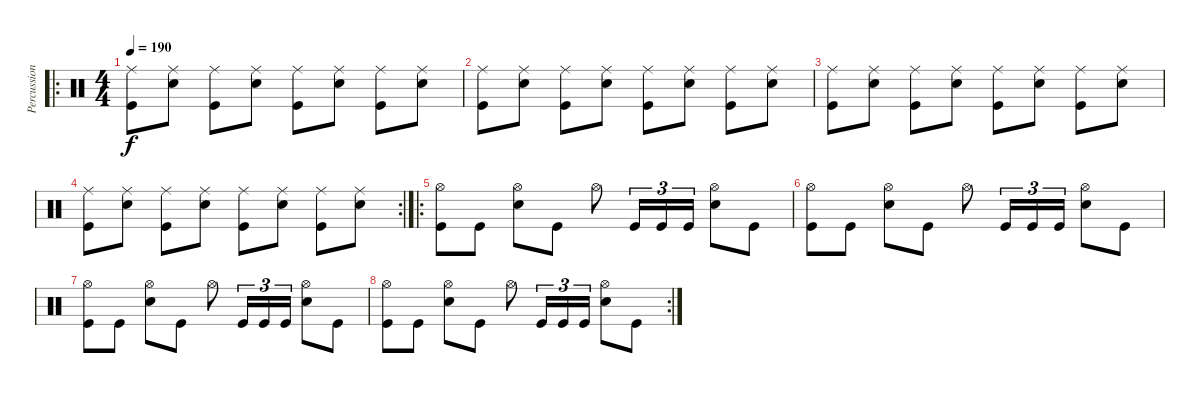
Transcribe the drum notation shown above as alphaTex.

\track ("Percussion" "Percussion") {instrument percussion}
\staff {score}
\articulation defaults
\ro
\ts (4 4)
\tempo 190
\clef neutral
\ks c
("Ride (middle)" "Kick (hit)").8{dy f} ("Ride (middle)" "Snare (hit) 2").8 ("Ride (middle)" "Kick (hit)").8 ("Ride (middle)" "Snare (hit) 2").8 ("Ride (middle)" "Kick (hit)").8 ("Ride (middle)" "Snare (hit) 2").8 ("Ride (middle)" "Kick (hit)").8 ("Ride (middle)" "Snare (hit) 2").8 |
("Ride (middle)" "Kick (hit)").8 ("Ride (middle)" "Snare (hit) 2").8 ("Ride (middle)" "Kick (hit)").8 ("Ride (middle)" "Snare (hit) 2").8 ("Ride (middle)" "Kick (hit)").8 ("Ride (middle)" "Snare (hit) 2").8 ("Ride (middle)" "Kick (hit)").8 ("Ride (middle)" "Snare (hit) 2").8 |
("Ride (middle)" "Kick (hit)").8 ("Ride (middle)" "Snare (hit) 2").8 ("Ride (middle)" "Kick (hit)").8 ("Ride (middle)" "Snare (hit) 2").8 ("Ride (middle)" "Kick (hit)").8 ("Ride (middle)" "Snare (hit) 2").8 ("Ride (middle)" "Kick (hit)").8 ("Ride (middle)" "Snare (hit) 2").8 |
\rc 2
("Ride (middle)" "Kick (hit)").8 ("Ride (middle)" "Snare (hit) 2").8 ("Ride (middle)" "Kick (hit)").8 ("Ride (middle)" "Snare (hit) 2").8 ("Ride (middle)" "Kick (hit)").8 ("Ride (middle)" "Snare (hit) 2").8 ("Ride (middle)" "Kick (hit)").8 ("Ride (middle)" "Snare (hit) 2").8 |
\ro
("Hi-Hat (open)" "Kick (hit)").8 "Kick (hit)".8 ("Hi-Hat (open)" "Snare (hit) 2").8 "Kick (hit)".8 "Hi-Hat (open)".8 "Kick (hit)".16{tu (3 2)} "Kick (hit)".16{tu (3 2)} "Kick (hit)".16{tu (3 2)} ("Hi-Hat (open)" "Snare (hit) 2").8 "Kick (hit)".8 |
("Hi-Hat (open)" "Kick (hit)").8 "Kick (hit)".8 ("Hi-Hat (open)" "Snare (hit) 2").8 "Kick (hit)".8 "Hi-Hat (open)".8 "Kick (hit)".16{tu (3 2)} "Kick (hit)".16{tu (3 2)} "Kick (hit)".16{tu (3 2)} ("Hi-Hat (open)" "Snare (hit) 2").8 "Kick (hit)".8 |
("Hi-Hat (open)" "Kick (hit)").8 "Kick (hit)".8 ("Hi-Hat (open)" "Snare (hit) 2").8 "Kick (hit)".8 "Hi-Hat (open)".8 "Kick (hit)".16{tu (3 2)} "Kick (hit)".16{tu (3 2)} "Kick (hit)".16{tu (3 2)} ("Hi-Hat (open)" "Snare (hit) 2").8 "Kick (hit)".8 |
\rc 2
("Hi-Hat (open)" "Kick (hit)").8 "Kick (hit)".8 ("Hi-Hat (open)" "Snare (hit) 2").8 "Kick (hit)".8 "Hi-Hat (open)".8 "Kick (hit)".16{tu (3 2)} "Kick (hit)".16{tu (3 2)} "Kick (hit)".16{tu (3 2)} ("Hi-Hat (open)" "Snare (hit) 2").8 "Kick (hit)".8
